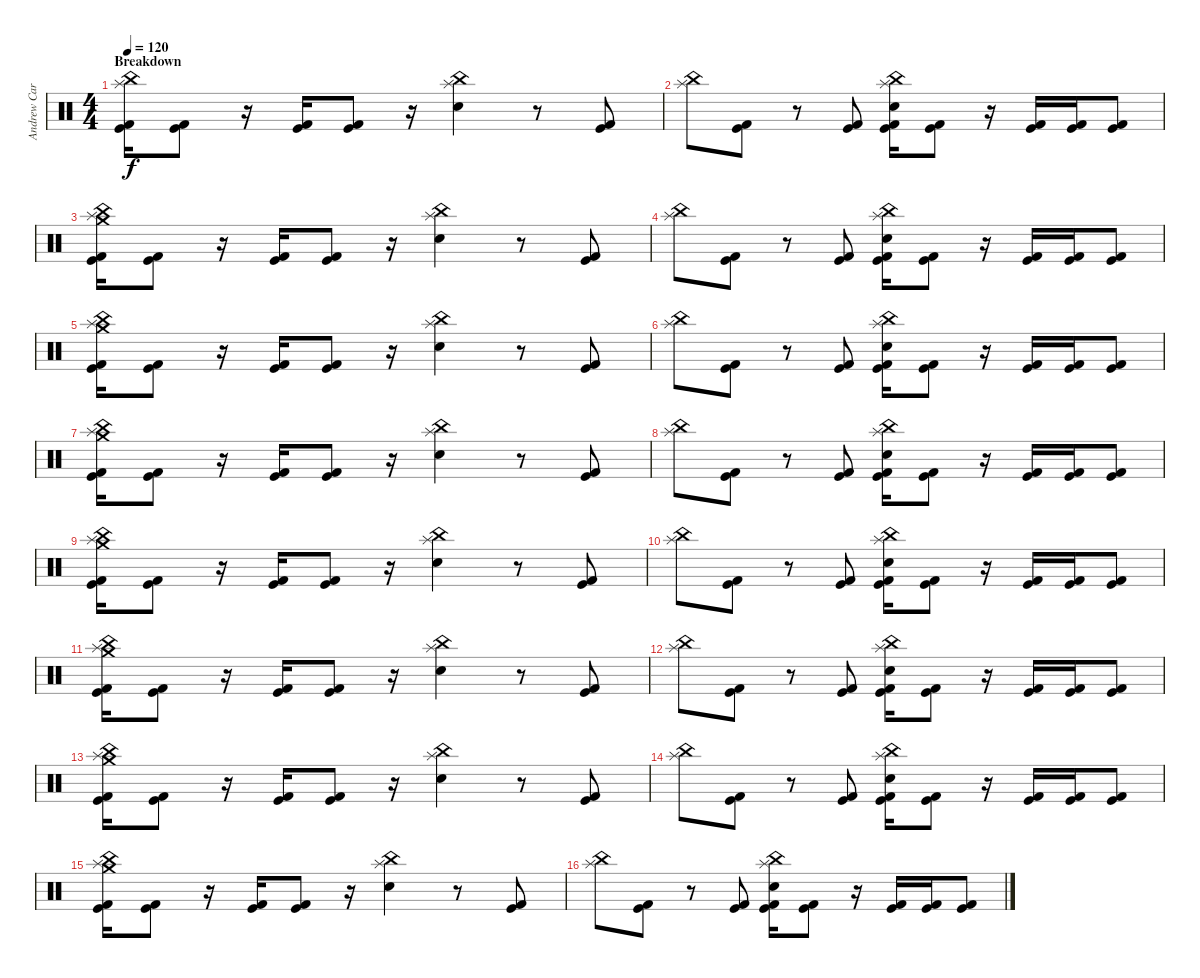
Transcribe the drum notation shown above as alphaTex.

\track ("Andrew Carlston" "Andrew Car") {instrument percussion}
\staff {score}
\articulation defaults
\ts (4 4)
\section ("" "Breakdown")
\tempo 120
\clef neutral
\ks c
("China (hit)" "Splash (hit)" "Kick (hit)" "Kick (hit) 2").16{dy f} ("Kick (hit)" "Kick (hit) 2").8 r.16 ("Kick (hit)" "Kick (hit) 2").16 ("Kick (hit)" "Kick (hit) 2").8 r.16 ("China (hit)" "Splash (hit)" "Electric Snare (hit)").4 r.8 ("Kick (hit)" "Kick (hit) 2").8 |
("China (hit)" "Splash (hit)").8 ("Kick (hit)" "Kick (hit) 2").8 r.8 ("Kick (hit)" "Kick (hit) 2").8 ("China (hit)" "Splash (hit)" "Electric Snare (hit)" "Kick (hit)" "Kick (hit) 2").16 ("Kick (hit)" "Kick (hit) 2").8 r.16 ("Kick (hit)" "Kick (hit) 2").16 ("Kick (hit)" "Kick (hit) 2").16 ("Kick (hit)" "Kick (hit) 2").8 |
("China (hit)" "Splash (hit)" "Crash medium (hit)" "Kick (hit)" "Kick (hit) 2").16 ("Kick (hit)" "Kick (hit) 2").8 r.16 ("Kick (hit)" "Kick (hit) 2").16 ("Kick (hit)" "Kick (hit) 2").8 r.16 ("China (hit)" "Splash (hit)" "Electric Snare (hit)").4 r.8 ("Kick (hit)" "Kick (hit) 2").8 |
("China (hit)" "Splash (hit)").8 ("Kick (hit)" "Kick (hit) 2").8 r.8 ("Kick (hit)" "Kick (hit) 2").8 ("China (hit)" "Splash (hit)" "Electric Snare (hit)" "Kick (hit)" "Kick (hit) 2").16 ("Kick (hit)" "Kick (hit) 2").8 r.16 ("Kick (hit)" "Kick (hit) 2").16 ("Kick (hit)" "Kick (hit) 2").16 ("Kick (hit)" "Kick (hit) 2").8 |
("China (hit)" "Splash (hit)" "Crash medium (hit)" "Kick (hit)" "Kick (hit) 2").16 ("Kick (hit)" "Kick (hit) 2").8 r.16 ("Kick (hit)" "Kick (hit) 2").16 ("Kick (hit)" "Kick (hit) 2").8 r.16 ("China (hit)" "Splash (hit)" "Electric Snare (hit)").4 r.8 ("Kick (hit)" "Kick (hit) 2").8 |
("China (hit)" "Splash (hit)").8 ("Kick (hit)" "Kick (hit) 2").8 r.8 ("Kick (hit)" "Kick (hit) 2").8 ("China (hit)" "Splash (hit)" "Electric Snare (hit)" "Kick (hit)" "Kick (hit) 2").16 ("Kick (hit)" "Kick (hit) 2").8 r.16 ("Kick (hit)" "Kick (hit) 2").16 ("Kick (hit)" "Kick (hit) 2").16 ("Kick (hit)" "Kick (hit) 2").8 |
("China (hit)" "Splash (hit)" "Crash medium (hit)" "Kick (hit)" "Kick (hit) 2").16 ("Kick (hit)" "Kick (hit) 2").8 r.16 ("Kick (hit)" "Kick (hit) 2").16 ("Kick (hit)" "Kick (hit) 2").8 r.16 ("China (hit)" "Splash (hit)" "Electric Snare (hit)").4 r.8 ("Kick (hit)" "Kick (hit) 2").8 |
("China (hit)" "Splash (hit)").8 ("Kick (hit)" "Kick (hit) 2").8 r.8 ("Kick (hit)" "Kick (hit) 2").8 ("China (hit)" "Splash (hit)" "Electric Snare (hit)" "Kick (hit)" "Kick (hit) 2").16 ("Kick (hit)" "Kick (hit) 2").8 r.16 ("Kick (hit)" "Kick (hit) 2").16 ("Kick (hit)" "Kick (hit) 2").16 ("Kick (hit)" "Kick (hit) 2").8 |
("China (hit)" "Splash (hit)" "Crash medium (hit)" "Kick (hit)" "Kick (hit) 2").16 ("Kick (hit)" "Kick (hit) 2").8 r.16 ("Kick (hit)" "Kick (hit) 2").16 ("Kick (hit)" "Kick (hit) 2").8 r.16 ("China (hit)" "Splash (hit)" "Electric Snare (hit)").4 r.8 ("Kick (hit)" "Kick (hit) 2").8 |
("China (hit)" "Splash (hit)").8 ("Kick (hit)" "Kick (hit) 2").8 r.8 ("Kick (hit)" "Kick (hit) 2").8 ("China (hit)" "Splash (hit)" "Electric Snare (hit)" "Kick (hit)" "Kick (hit) 2").16 ("Kick (hit)" "Kick (hit) 2").8 r.16 ("Kick (hit)" "Kick (hit) 2").16 ("Kick (hit)" "Kick (hit) 2").16 ("Kick (hit)" "Kick (hit) 2").8 |
("China (hit)" "Splash (hit)" "Crash medium (hit)" "Kick (hit)" "Kick (hit) 2").16 ("Kick (hit)" "Kick (hit) 2").8 r.16 ("Kick (hit)" "Kick (hit) 2").16 ("Kick (hit)" "Kick (hit) 2").8 r.16 ("China (hit)" "Splash (hit)" "Electric Snare (hit)").4 r.8 ("Kick (hit)" "Kick (hit) 2").8 |
("China (hit)" "Splash (hit)").8 ("Kick (hit)" "Kick (hit) 2").8 r.8 ("Kick (hit)" "Kick (hit) 2").8 ("China (hit)" "Splash (hit)" "Electric Snare (hit)" "Kick (hit)" "Kick (hit) 2").16 ("Kick (hit)" "Kick (hit) 2").8 r.16 ("Kick (hit)" "Kick (hit) 2").16 ("Kick (hit)" "Kick (hit) 2").16 ("Kick (hit)" "Kick (hit) 2").8 |
("China (hit)" "Splash (hit)" "Crash medium (hit)" "Kick (hit)" "Kick (hit) 2").16 ("Kick (hit)" "Kick (hit) 2").8 r.16 ("Kick (hit)" "Kick (hit) 2").16 ("Kick (hit)" "Kick (hit) 2").8 r.16 ("China (hit)" "Splash (hit)" "Electric Snare (hit)").4 r.8 ("Kick (hit)" "Kick (hit) 2").8 |
("China (hit)" "Splash (hit)").8 ("Kick (hit)" "Kick (hit) 2").8 r.8 ("Kick (hit)" "Kick (hit) 2").8 ("China (hit)" "Splash (hit)" "Electric Snare (hit)" "Kick (hit)" "Kick (hit) 2").16 ("Kick (hit)" "Kick (hit) 2").8 r.16 ("Kick (hit)" "Kick (hit) 2").16 ("Kick (hit)" "Kick (hit) 2").16 ("Kick (hit)" "Kick (hit) 2").8 |
("China (hit)" "Splash (hit)" "Crash medium (hit)" "Kick (hit)" "Kick (hit) 2").16 ("Kick (hit)" "Kick (hit) 2").8 r.16 ("Kick (hit)" "Kick (hit) 2").16 ("Kick (hit)" "Kick (hit) 2").8 r.16 ("China (hit)" "Splash (hit)" "Electric Snare (hit)").4 r.8 ("Kick (hit)" "Kick (hit) 2").8 |
("China (hit)" "Splash (hit)").8 ("Kick (hit)" "Kick (hit) 2").8 r.8 ("Kick (hit)" "Kick (hit) 2").8 ("China (hit)" "Splash (hit)" "Electric Snare (hit)" "Kick (hit)" "Kick (hit) 2").16 ("Kick (hit)" "Kick (hit) 2").8 r.16 ("Kick (hit)" "Kick (hit) 2").16 ("Kick (hit)" "Kick (hit) 2").16 ("Kick (hit)" "Kick (hit) 2").8
